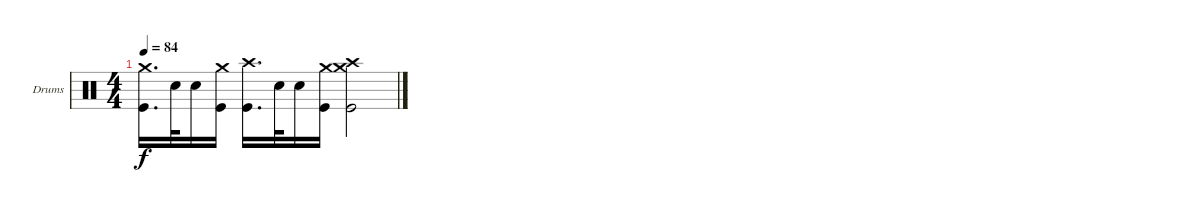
\bracketExtendMode groupsimilarinstruments
\firstSystemTrackNameOrientation horizontal
\otherSystemsTrackNameOrientation horizontal
\track ("Drumkit" "Drums") {solo instrument percussion}
\staff {score}
\articulation defaults
\ts (4 4)
\tempo 84
\clef neutral
\ks c
("Crash medium (hit)" "Kick (hit)").16{d dy f} "Snare (hit) 2".32 "Snare (hit) 2".16 ("Crash medium (hit)" "Kick (hit)").16 ("Crash high (hit)" "Kick (hit)").16{d} "Snare (hit) 2".32 "Snare (hit) 2".16 ("Crash medium (hit)" "Kick (hit)").16 ("Crash high (hit)" "Crash medium (hit)" "Kick (hit)").2
